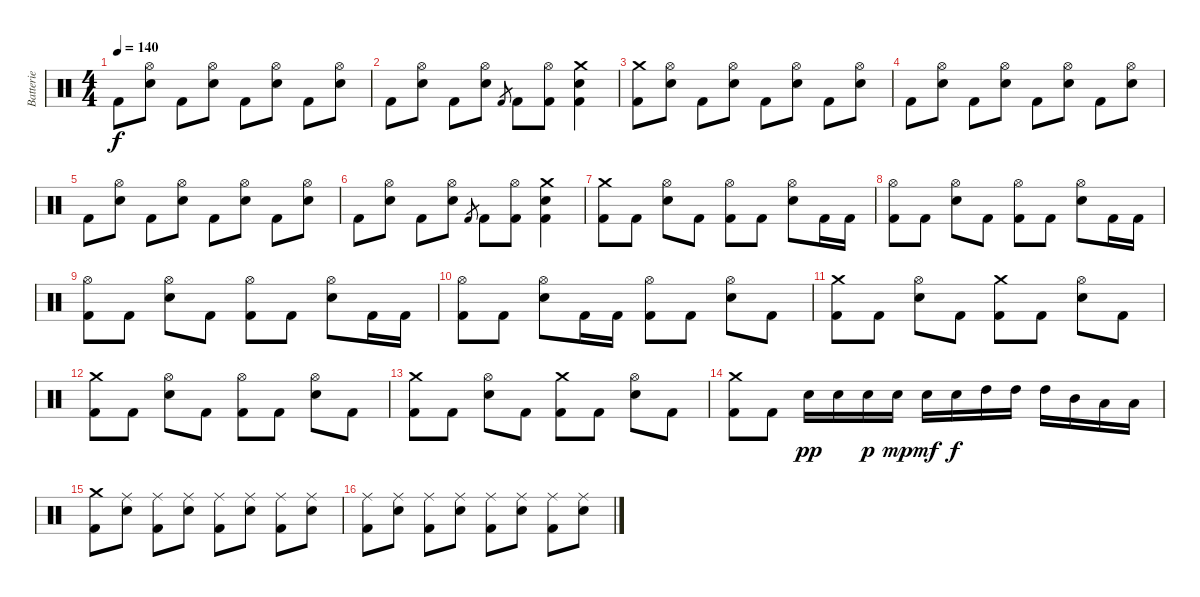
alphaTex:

\track ("Batterie" "Batterie") {instrument percussion}
\staff {score}
\articulation defaults
\ts (4 4)
\tempo 140
\clef neutral
\ks c "Kick (hit) 2".8{dy f}
("Hi-Hat (open)" "Electric Snare (hit)").8 "Kick (hit) 2".8 ("Hi-Hat (open)" "Electric Snare (hit)").8 "Kick (hit) 2".8 ("Hi-Hat (open)" "Electric Snare (hit)").8 "Kick (hit) 2".8 ("Hi-Hat (open)" "Electric Snare (hit)").8 |
"Kick (hit) 2".8 ("Hi-Hat (open)" "Electric Snare (hit)").8 "Kick (hit) 2".8 ("Hi-Hat (open)" "Electric Snare (hit)").8 "Kick (hit) 2".8{gr} "Kick (hit) 2".8 ("Hi-Hat (open)" "Kick (hit) 2").8 ("Crash medium (hit)" "Electric Snare (hit)" "Kick (hit) 2").4 |
("Crash medium (hit)" "Kick (hit) 2").8 ("Hi-Hat (open)" "Electric Snare (hit)").8 "Kick (hit) 2".8 ("Hi-Hat (open)" "Electric Snare (hit)").8 "Kick (hit) 2".8 ("Hi-Hat (open)" "Electric Snare (hit)").8 "Kick (hit) 2".8 ("Hi-Hat (open)" "Electric Snare (hit)").8 |
"Kick (hit) 2".8 ("Hi-Hat (open)" "Electric Snare (hit)").8 "Kick (hit) 2".8 ("Hi-Hat (open)" "Electric Snare (hit)").8 "Kick (hit) 2".8 ("Hi-Hat (open)" "Electric Snare (hit)").8 "Kick (hit) 2".8 ("Hi-Hat (open)" "Electric Snare (hit)").8 |
"Kick (hit) 2".8 ("Hi-Hat (open)" "Electric Snare (hit)").8 "Kick (hit) 2".8 ("Hi-Hat (open)" "Electric Snare (hit)").8 "Kick (hit) 2".8 ("Hi-Hat (open)" "Electric Snare (hit)").8 "Kick (hit) 2".8 ("Hi-Hat (open)" "Electric Snare (hit)").8 |
"Kick (hit) 2".8 ("Hi-Hat (open)" "Electric Snare (hit)").8 "Kick (hit) 2".8 ("Hi-Hat (open)" "Electric Snare (hit)").8 "Kick (hit) 2".8{gr} "Kick (hit) 2".8 ("Hi-Hat (open)" "Kick (hit) 2").8 ("Crash medium (hit)" "Electric Snare (hit)" "Kick (hit) 2").4 |
("Crash medium (hit)" "Kick (hit) 2").8 "Kick (hit) 2".8 ("Hi-Hat (open)" "Electric Snare (hit)").8 "Kick (hit) 2".8 ("Hi-Hat (open)" "Kick (hit) 2").8 "Kick (hit) 2".8 ("Hi-Hat (open)" "Electric Snare (hit)").8 "Kick (hit) 2".16 "Kick (hit) 2".16 |
("Hi-Hat (open)" "Kick (hit) 2").8 "Kick (hit) 2".8 ("Hi-Hat (open)" "Electric Snare (hit)").8 "Kick (hit) 2".8 ("Hi-Hat (open)" "Kick (hit) 2").8 "Kick (hit) 2".8 ("Hi-Hat (open)" "Electric Snare (hit)").8 "Kick (hit) 2".16 "Kick (hit) 2".16 |
("Hi-Hat (open)" "Kick (hit) 2").8 "Kick (hit) 2".8 ("Hi-Hat (open)" "Electric Snare (hit)").8 "Kick (hit) 2".8 ("Hi-Hat (open)" "Kick (hit) 2").8 "Kick (hit) 2".8 ("Hi-Hat (open)" "Electric Snare (hit)").8 "Kick (hit) 2".16 "Kick (hit) 2".16 |
("Hi-Hat (open)" "Kick (hit) 2").8 "Kick (hit) 2".8 ("Hi-Hat (open)" "Electric Snare (hit)").8 "Kick (hit) 2".16 "Kick (hit) 2".16 ("Hi-Hat (open)" "Kick (hit) 2").8 "Kick (hit) 2".8 ("Hi-Hat (open)" "Electric Snare (hit)").8 "Kick (hit) 2".8 |
("Crash medium (hit)" "Kick (hit) 2").8 "Kick (hit) 2".8 ("Hi-Hat (open)" "Electric Snare (hit)").8 "Kick (hit) 2".8 ("Crash medium (hit)" "Kick (hit) 2").8 "Kick (hit) 2".8 ("Hi-Hat (open)" "Electric Snare (hit)").8 "Kick (hit) 2".8 |
("Crash medium (hit)" "Kick (hit) 2").8 "Kick (hit) 2".8 ("Hi-Hat (open)" "Electric Snare (hit)").8 "Kick (hit) 2".8 ("Hi-Hat (open)" "Kick (hit) 2").8 "Kick (hit) 2".8 ("Hi-Hat (open)" "Electric Snare (hit)").8 "Kick (hit) 2".8 |
("Crash medium (hit)" "Kick (hit) 2").8 "Kick (hit) 2".8 ("Hi-Hat (open)" "Electric Snare (hit)").8 "Kick (hit) 2".8 ("Crash medium (hit)" "Kick (hit) 2").8 "Kick (hit) 2".8 ("Hi-Hat (open)" "Electric Snare (hit)").8 "Kick (hit) 2".8 |
("Crash medium (hit)" "Kick (hit) 2").8 "Kick (hit) 2".8 "Electric Snare (hit)".16{dy pp} "Electric Snare (hit)".16 "Electric Snare (hit)".16{dy p} "Electric Snare (hit)".16{dy mp} "Electric Snare (hit)".16{dy mf} "Electric Snare (hit)".16{dy f} "High Tom (hit)".16 "High Tom (hit)".16 "High Tom (hit)".16 "Mid Tom (hit)".16 "Low Tom (hit)".16 "Low Tom (hit)".16 |
("Crash medium (hit)" "Kick (hit) 2").8 ("Ride (middle)" "Electric Snare (hit)").8 ("Ride (middle)" "Kick (hit) 2").8 ("Ride (middle)" "Electric Snare (hit)").8 ("Ride (middle)" "Kick (hit) 2").8 ("Ride (middle)" "Electric Snare (hit)").8 ("Ride (middle)" "Kick (hit) 2").8 ("Ride (middle)" "Electric Snare (hit)").8 |
("Ride (middle)" "Kick (hit) 2").8 ("Ride (middle)" "Electric Snare (hit)").8 ("Ride (middle)" "Kick (hit) 2").8 ("Ride (middle)" "Electric Snare (hit)").8 ("Ride (middle)" "Kick (hit) 2").8 ("Ride (middle)" "Electric Snare (hit)").8 ("Ride (middle)" "Kick (hit) 2").8 ("Ride (middle)" "Electric Snare (hit)").8
